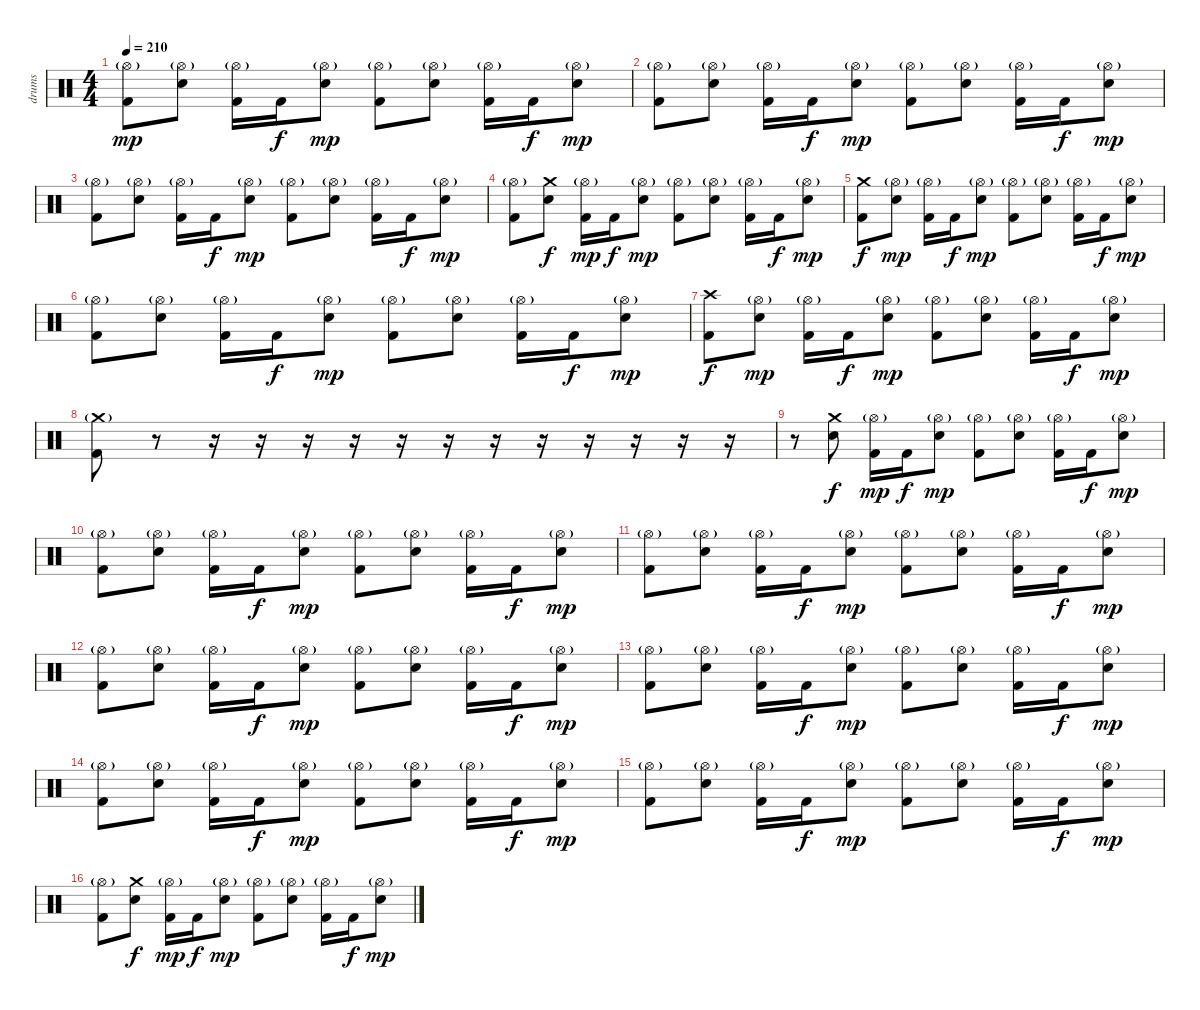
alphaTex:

\track ("drums" "drums") {instrument percussion}
\staff {score}
\articulation defaults
\ts (4 4)
\tempo 210
\clef neutral
\ks c
("Hi-Hat (open)"{g} "Kick (hit) 2").8{dy mp} ("Hi-Hat (open)"{g} "Electric Snare (hit)").8 ("Hi-Hat (open)"{g} "Kick (hit) 2").16 "Kick (hit) 2".16{dy f} ("Hi-Hat (open)"{g} "Electric Snare (hit)").8{dy mp} ("Hi-Hat (open)"{g} "Kick (hit) 2").8 ("Hi-Hat (open)"{g} "Electric Snare (hit)").8 ("Hi-Hat (open)"{g} "Kick (hit) 2").16 "Kick (hit) 2".16{dy f} ("Hi-Hat (open)"{g} "Electric Snare (hit)").8{dy mp} |
("Hi-Hat (open)"{g} "Kick (hit) 2").8 ("Hi-Hat (open)"{g} "Electric Snare (hit)").8 ("Hi-Hat (open)"{g} "Kick (hit) 2").16 "Kick (hit) 2".16{dy f} ("Hi-Hat (open)"{g} "Electric Snare (hit)").8{dy mp} ("Hi-Hat (open)"{g} "Kick (hit) 2").8 ("Hi-Hat (open)"{g} "Electric Snare (hit)").8 ("Hi-Hat (open)"{g} "Kick (hit) 2").16 "Kick (hit) 2".16{dy f} ("Hi-Hat (open)"{g} "Electric Snare (hit)").8{dy mp} |
("Hi-Hat (open)"{g} "Kick (hit) 2").8 ("Hi-Hat (open)"{g} "Electric Snare (hit)").8 ("Hi-Hat (open)"{g} "Kick (hit) 2").16 "Kick (hit) 2".16{dy f} ("Hi-Hat (open)"{g} "Electric Snare (hit)").8{dy mp} ("Hi-Hat (open)"{g} "Kick (hit) 2").8 ("Hi-Hat (open)"{g} "Electric Snare (hit)").8 ("Hi-Hat (open)"{g} "Kick (hit) 2").16 "Kick (hit) 2".16{dy f} ("Hi-Hat (open)"{g} "Electric Snare (hit)").8{dy mp} |
("Hi-Hat (open)"{g} "Kick (hit) 2").8 ("Crash medium (hit)" "Electric Snare (hit)").8{dy f} ("Hi-Hat (open)"{g} "Kick (hit) 2").16{dy mp} "Kick (hit) 2".16{dy f} ("Hi-Hat (open)"{g} "Electric Snare (hit)").8{dy mp} ("Hi-Hat (open)"{g} "Kick (hit) 2").8 ("Hi-Hat (open)"{g} "Electric Snare (hit)").8 ("Hi-Hat (open)"{g} "Kick (hit) 2").16 "Kick (hit) 2".16{dy f} ("Hi-Hat (open)"{g} "Electric Snare (hit)").8{dy mp} |
("Crash medium (hit)" "Kick (hit) 2").8{dy f} ("Hi-Hat (open)"{g} "Electric Snare (hit)").8{dy mp} ("Hi-Hat (open)"{g} "Kick (hit) 2").16 "Kick (hit) 2".16{dy f} ("Hi-Hat (open)"{g} "Electric Snare (hit)").8{dy mp} ("Hi-Hat (open)"{g} "Kick (hit) 2").8 ("Hi-Hat (open)"{g} "Electric Snare (hit)").8 ("Hi-Hat (open)"{g} "Kick (hit) 2").16 "Kick (hit) 2".16{dy f} ("Hi-Hat (open)"{g} "Electric Snare (hit)").8{dy mp} |
("Hi-Hat (open)"{g} "Kick (hit) 2").8 ("Hi-Hat (open)"{g} "Electric Snare (hit)").8 ("Hi-Hat (open)"{g} "Kick (hit) 2").16 "Kick (hit) 2".16{dy f} ("Hi-Hat (open)"{g} "Electric Snare (hit)").8{dy mp} ("Hi-Hat (open)"{g} "Kick (hit) 2").8 ("Hi-Hat (open)"{g} "Electric Snare (hit)").8 ("Hi-Hat (open)"{g} "Kick (hit) 2").16 "Kick (hit) 2".16{dy f} ("Hi-Hat (open)"{g} "Electric Snare (hit)").8{dy mp} |
("Crash high (hit)" "Kick (hit) 2").8{dy f} ("Hi-Hat (open)"{g} "Electric Snare (hit)").8{dy mp} ("Hi-Hat (open)"{g} "Kick (hit) 2").16 "Kick (hit) 2".16{dy f} ("Hi-Hat (open)"{g} "Electric Snare (hit)").8{dy mp} ("Hi-Hat (open)"{g} "Kick (hit) 2").8 ("Hi-Hat (open)"{g} "Electric Snare (hit)").8 ("Hi-Hat (open)"{g} "Kick (hit) 2").16 "Kick (hit) 2".16{dy f} ("Hi-Hat (open)"{g} "Electric Snare (hit)").8{dy mp} |
("Crash medium (hit)"{g} "Kick (hit) 2").8 r.8 r.16 r.16 r.16 r.16 r.16 r.16 r.16 r.16 r.16 r.16 r.16 r.16 |
\section ("" "")
r.8 ("Crash medium (hit)" "Electric Snare (hit)").8{dy f} ("Hi-Hat (open)"{g} "Kick (hit) 2").16{dy mp} "Kick (hit) 2".16{dy f} ("Hi-Hat (open)"{g} "Electric Snare (hit)").8{dy mp} ("Hi-Hat (open)"{g} "Kick (hit) 2").8 ("Hi-Hat (open)"{g} "Electric Snare (hit)").8 ("Hi-Hat (open)"{g} "Kick (hit) 2").16 "Kick (hit) 2".16{dy f} ("Hi-Hat (open)"{g} "Electric Snare (hit)").8{dy mp} |
("Hi-Hat (open)"{g} "Kick (hit) 2").8 ("Hi-Hat (open)"{g} "Electric Snare (hit)").8 ("Hi-Hat (open)"{g} "Kick (hit) 2").16 "Kick (hit) 2".16{dy f} ("Hi-Hat (open)"{g} "Electric Snare (hit)").8{dy mp} ("Hi-Hat (open)"{g} "Kick (hit) 2").8 ("Hi-Hat (open)"{g} "Electric Snare (hit)").8 ("Hi-Hat (open)"{g} "Kick (hit) 2").16 "Kick (hit) 2".16{dy f} ("Hi-Hat (open)"{g} "Electric Snare (hit)").8{dy mp} |
("Hi-Hat (open)"{g} "Kick (hit) 2").8 ("Hi-Hat (open)"{g} "Electric Snare (hit)").8 ("Hi-Hat (open)"{g} "Kick (hit) 2").16 "Kick (hit) 2".16{dy f} ("Hi-Hat (open)"{g} "Electric Snare (hit)").8{dy mp} ("Hi-Hat (open)"{g} "Kick (hit) 2").8 ("Hi-Hat (open)"{g} "Electric Snare (hit)").8 ("Hi-Hat (open)"{g} "Kick (hit) 2").16 "Kick (hit) 2".16{dy f} ("Hi-Hat (open)"{g} "Electric Snare (hit)").8{dy mp} |
("Hi-Hat (open)"{g} "Kick (hit) 2").8 ("Hi-Hat (open)"{g} "Electric Snare (hit)").8 ("Hi-Hat (open)"{g} "Kick (hit) 2").16 "Kick (hit) 2".16{dy f} ("Hi-Hat (open)"{g} "Electric Snare (hit)").8{dy mp} ("Hi-Hat (open)"{g} "Kick (hit) 2").8 ("Hi-Hat (open)"{g} "Electric Snare (hit)").8 ("Hi-Hat (open)"{g} "Kick (hit) 2").16 "Kick (hit) 2".16{dy f} ("Hi-Hat (open)"{g} "Electric Snare (hit)").8{dy mp} |
("Hi-Hat (open)"{g} "Kick (hit) 2").8 ("Hi-Hat (open)"{g} "Electric Snare (hit)").8 ("Hi-Hat (open)"{g} "Kick (hit) 2").16 "Kick (hit) 2".16{dy f} ("Hi-Hat (open)"{g} "Electric Snare (hit)").8{dy mp} ("Hi-Hat (open)"{g} "Kick (hit) 2").8 ("Hi-Hat (open)"{g} "Electric Snare (hit)").8 ("Hi-Hat (open)"{g} "Kick (hit) 2").16 "Kick (hit) 2".16{dy f} ("Hi-Hat (open)"{g} "Electric Snare (hit)").8{dy mp} |
("Hi-Hat (open)"{g} "Kick (hit) 2").8 ("Hi-Hat (open)"{g} "Electric Snare (hit)").8 ("Hi-Hat (open)"{g} "Kick (hit) 2").16 "Kick (hit) 2".16{dy f} ("Hi-Hat (open)"{g} "Electric Snare (hit)").8{dy mp} ("Hi-Hat (open)"{g} "Kick (hit) 2").8 ("Hi-Hat (open)"{g} "Electric Snare (hit)").8 ("Hi-Hat (open)"{g} "Kick (hit) 2").16 "Kick (hit) 2".16{dy f} ("Hi-Hat (open)"{g} "Electric Snare (hit)").8{dy mp} |
("Hi-Hat (open)"{g} "Kick (hit) 2").8 ("Hi-Hat (open)"{g} "Electric Snare (hit)").8 ("Hi-Hat (open)"{g} "Kick (hit) 2").16 "Kick (hit) 2".16{dy f} ("Hi-Hat (open)"{g} "Electric Snare (hit)").8{dy mp} ("Hi-Hat (open)"{g} "Kick (hit) 2").8 ("Hi-Hat (open)"{g} "Electric Snare (hit)").8 ("Hi-Hat (open)"{g} "Kick (hit) 2").16 "Kick (hit) 2".16{dy f} ("Hi-Hat (open)"{g} "Electric Snare (hit)").8{dy mp} |
("Hi-Hat (open)"{g} "Kick (hit) 2").8 ("Crash medium (hit)" "Electric Snare (hit)").8{dy f} ("Hi-Hat (open)"{g} "Kick (hit) 2").16{dy mp} "Kick (hit) 2".16{dy f} ("Hi-Hat (open)"{g} "Electric Snare (hit)").8{dy mp} ("Hi-Hat (open)"{g} "Kick (hit) 2").8 ("Hi-Hat (open)"{g} "Electric Snare (hit)").8 ("Hi-Hat (open)"{g} "Kick (hit) 2").16 "Kick (hit) 2".16{dy f} ("Hi-Hat (open)"{g} "Electric Snare (hit)").8{dy mp}
